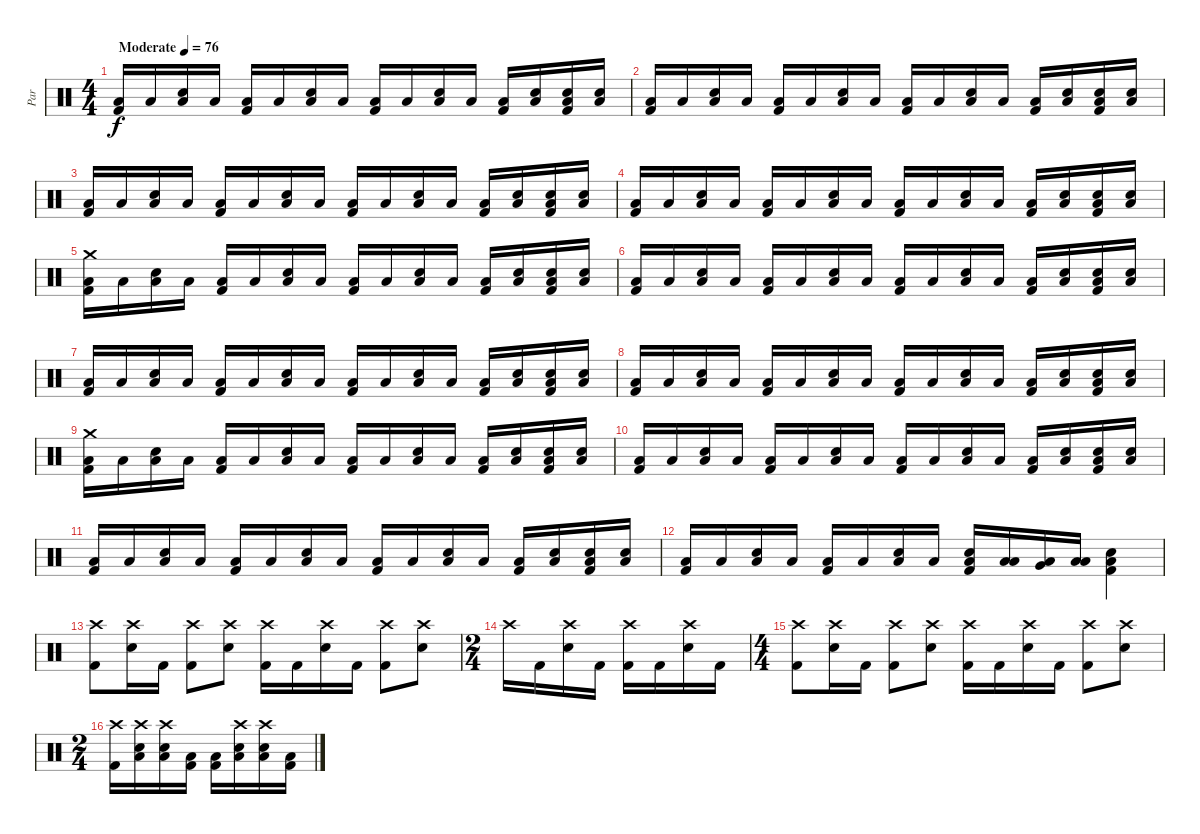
\track ("Par" "Par") {instrument percussion}
\staff {score}
\articulation defaults
\ts (4 4)
\tempo (76 "Moderate")
\clef neutral
\ks c
("Low Floor Tom (hit)" "Kick (hit) 2").16{dy f} "Low Floor Tom (hit)".16 ("Low Floor Tom (hit)" "Snare (hit) 2").16 "Low Floor Tom (hit)".16 ("Low Floor Tom (hit)" "Kick (hit) 2").16 "Low Floor Tom (hit)".16 ("Low Floor Tom (hit)" "Snare (hit) 2").16 "Low Floor Tom (hit)".16 ("Low Floor Tom (hit)" "Kick (hit) 2").16 "Low Floor Tom (hit)".16 ("Low Floor Tom (hit)" "Snare (hit) 2").16 "Low Floor Tom (hit)".16 ("Low Floor Tom (hit)" "Kick (hit) 2").16 ("Low Floor Tom (hit)" "Snare (hit) 2").16 ("Low Floor Tom (hit)" "Snare (hit) 2" "Kick (hit) 2").16 ("Low Floor Tom (hit)" "Snare (hit) 2").16 |
("Low Floor Tom (hit)" "Kick (hit) 2").16 "Low Floor Tom (hit)".16 ("Low Floor Tom (hit)" "Snare (hit) 2").16 "Low Floor Tom (hit)".16 ("Low Floor Tom (hit)" "Kick (hit) 2").16 "Low Floor Tom (hit)".16 ("Low Floor Tom (hit)" "Snare (hit) 2").16 "Low Floor Tom (hit)".16 ("Low Floor Tom (hit)" "Kick (hit) 2").16 "Low Floor Tom (hit)".16 ("Low Floor Tom (hit)" "Snare (hit) 2").16 "Low Floor Tom (hit)".16 ("Low Floor Tom (hit)" "Kick (hit) 2").16 ("Low Floor Tom (hit)" "Snare (hit) 2").16 ("Low Floor Tom (hit)" "Snare (hit) 2" "Kick (hit) 2").16 ("Low Floor Tom (hit)" "Snare (hit) 2").16 |
("Low Floor Tom (hit)" "Kick (hit) 2").16 "Low Floor Tom (hit)".16 ("Low Floor Tom (hit)" "Snare (hit) 2").16 "Low Floor Tom (hit)".16 ("Low Floor Tom (hit)" "Kick (hit) 2").16 "Low Floor Tom (hit)".16 ("Low Floor Tom (hit)" "Snare (hit) 2").16 "Low Floor Tom (hit)".16 ("Low Floor Tom (hit)" "Kick (hit) 2").16 "Low Floor Tom (hit)".16 ("Low Floor Tom (hit)" "Snare (hit) 2").16 "Low Floor Tom (hit)".16 ("Low Floor Tom (hit)" "Kick (hit) 2").16 ("Low Floor Tom (hit)" "Snare (hit) 2").16 ("Low Floor Tom (hit)" "Snare (hit) 2" "Kick (hit) 2").16 ("Low Floor Tom (hit)" "Snare (hit) 2").16 |
("Low Floor Tom (hit)" "Kick (hit) 2").16 "Low Floor Tom (hit)".16 ("Low Floor Tom (hit)" "Snare (hit) 2").16 "Low Floor Tom (hit)".16 ("Low Floor Tom (hit)" "Kick (hit) 2").16 "Low Floor Tom (hit)".16 ("Low Floor Tom (hit)" "Snare (hit) 2").16 "Low Floor Tom (hit)".16 ("Low Floor Tom (hit)" "Kick (hit) 2").16 "Low Floor Tom (hit)".16 ("Low Floor Tom (hit)" "Snare (hit) 2").16 "Low Floor Tom (hit)".16 ("Low Floor Tom (hit)" "Kick (hit) 2").16 ("Low Floor Tom (hit)" "Snare (hit) 2").16 ("Low Floor Tom (hit)" "Snare (hit) 2" "Kick (hit) 2").16 ("Low Floor Tom (hit)" "Snare (hit) 2").16 |
("Crash medium (hit)" "Low Floor Tom (hit)" "Kick (hit) 2").16 "Low Floor Tom (hit)".16 ("Low Floor Tom (hit)" "Snare (hit) 2").16 "Low Floor Tom (hit)".16 ("Low Floor Tom (hit)" "Kick (hit) 2").16 "Low Floor Tom (hit)".16 ("Low Floor Tom (hit)" "Snare (hit) 2").16 "Low Floor Tom (hit)".16 ("Low Floor Tom (hit)" "Kick (hit) 2").16 "Low Floor Tom (hit)".16 ("Low Floor Tom (hit)" "Snare (hit) 2").16 "Low Floor Tom (hit)".16 ("Low Floor Tom (hit)" "Kick (hit) 2").16 ("Low Floor Tom (hit)" "Snare (hit) 2").16 ("Low Floor Tom (hit)" "Snare (hit) 2" "Kick (hit) 2").16 ("Low Floor Tom (hit)" "Snare (hit) 2").16 |
("Low Floor Tom (hit)" "Kick (hit) 2").16 "Low Floor Tom (hit)".16 ("Low Floor Tom (hit)" "Snare (hit) 2").16 "Low Floor Tom (hit)".16 ("Low Floor Tom (hit)" "Kick (hit) 2").16 "Low Floor Tom (hit)".16 ("Low Floor Tom (hit)" "Snare (hit) 2").16 "Low Floor Tom (hit)".16 ("Low Floor Tom (hit)" "Kick (hit) 2").16 "Low Floor Tom (hit)".16 ("Low Floor Tom (hit)" "Snare (hit) 2").16 "Low Floor Tom (hit)".16 ("Low Floor Tom (hit)" "Kick (hit) 2").16 ("Low Floor Tom (hit)" "Snare (hit) 2").16 ("Low Floor Tom (hit)" "Snare (hit) 2" "Kick (hit) 2").16 ("Low Floor Tom (hit)" "Snare (hit) 2").16 |
("Low Floor Tom (hit)" "Kick (hit) 2").16 "Low Floor Tom (hit)".16 ("Low Floor Tom (hit)" "Snare (hit) 2").16 "Low Floor Tom (hit)".16 ("Low Floor Tom (hit)" "Kick (hit) 2").16 "Low Floor Tom (hit)".16 ("Low Floor Tom (hit)" "Snare (hit) 2").16 "Low Floor Tom (hit)".16 ("Low Floor Tom (hit)" "Kick (hit) 2").16 "Low Floor Tom (hit)".16 ("Low Floor Tom (hit)" "Snare (hit) 2").16 "Low Floor Tom (hit)".16 ("Low Floor Tom (hit)" "Kick (hit) 2").16 ("Low Floor Tom (hit)" "Snare (hit) 2").16 ("Low Floor Tom (hit)" "Snare (hit) 2" "Kick (hit) 2").16 ("Low Floor Tom (hit)" "Snare (hit) 2").16 |
("Low Floor Tom (hit)" "Kick (hit) 2").16 "Low Floor Tom (hit)".16 ("Low Floor Tom (hit)" "Snare (hit) 2").16 "Low Floor Tom (hit)".16 ("Low Floor Tom (hit)" "Kick (hit) 2").16 "Low Floor Tom (hit)".16 ("Low Floor Tom (hit)" "Snare (hit) 2").16 "Low Floor Tom (hit)".16 ("Low Floor Tom (hit)" "Kick (hit) 2").16 "Low Floor Tom (hit)".16 ("Low Floor Tom (hit)" "Snare (hit) 2").16 "Low Floor Tom (hit)".16 ("Low Floor Tom (hit)" "Kick (hit) 2").16 ("Low Floor Tom (hit)" "Snare (hit) 2").16 ("Low Floor Tom (hit)" "Snare (hit) 2" "Kick (hit) 2").16 ("Low Floor Tom (hit)" "Snare (hit) 2").16 |
("Crash medium (hit)" "Low Floor Tom (hit)" "Kick (hit) 2").16 "Low Floor Tom (hit)".16 ("Low Floor Tom (hit)" "Snare (hit) 2").16 "Low Floor Tom (hit)".16 ("Low Floor Tom (hit)" "Kick (hit) 2").16 "Low Floor Tom (hit)".16 ("Low Floor Tom (hit)" "Snare (hit) 2").16 "Low Floor Tom (hit)".16 ("Low Floor Tom (hit)" "Kick (hit) 2").16 "Low Floor Tom (hit)".16 ("Low Floor Tom (hit)" "Snare (hit) 2").16 "Low Floor Tom (hit)".16 ("Low Floor Tom (hit)" "Kick (hit) 2").16 ("Low Floor Tom (hit)" "Snare (hit) 2").16 ("Low Floor Tom (hit)" "Snare (hit) 2" "Kick (hit) 2").16 ("Low Floor Tom (hit)" "Snare (hit) 2").16 |
("Low Floor Tom (hit)" "Kick (hit) 2").16 "Low Floor Tom (hit)".16 ("Low Floor Tom (hit)" "Snare (hit) 2").16 "Low Floor Tom (hit)".16 ("Low Floor Tom (hit)" "Kick (hit) 2").16 "Low Floor Tom (hit)".16 ("Low Floor Tom (hit)" "Snare (hit) 2").16 "Low Floor Tom (hit)".16 ("Low Floor Tom (hit)" "Kick (hit) 2").16 "Low Floor Tom (hit)".16 ("Low Floor Tom (hit)" "Snare (hit) 2").16 "Low Floor Tom (hit)".16 ("Low Floor Tom (hit)" "Kick (hit) 2").16 ("Low Floor Tom (hit)" "Snare (hit) 2").16 ("Low Floor Tom (hit)" "Snare (hit) 2" "Kick (hit) 2").16 ("Low Floor Tom (hit)" "Snare (hit) 2").16 |
("Low Floor Tom (hit)" "Kick (hit) 2").16 "Low Floor Tom (hit)".16 ("Low Floor Tom (hit)" "Snare (hit) 2").16 "Low Floor Tom (hit)".16 ("Low Floor Tom (hit)" "Kick (hit) 2").16 "Low Floor Tom (hit)".16 ("Low Floor Tom (hit)" "Snare (hit) 2").16 "Low Floor Tom (hit)".16 ("Low Floor Tom (hit)" "Kick (hit) 2").16 "Low Floor Tom (hit)".16 ("Low Floor Tom (hit)" "Snare (hit) 2").16 "Low Floor Tom (hit)".16 ("Low Floor Tom (hit)" "Kick (hit) 2").16 ("Low Floor Tom (hit)" "Snare (hit) 2").16 ("Low Floor Tom (hit)" "Snare (hit) 2" "Kick (hit) 2").16 ("Low Floor Tom (hit)" "Snare (hit) 2").16 |
("Low Floor Tom (hit)" "Kick (hit) 2").16 "Low Floor Tom (hit)".16 ("Low Floor Tom (hit)" "Snare (hit) 2").16 "Low Floor Tom (hit)".16 ("Low Floor Tom (hit)" "Kick (hit) 2").16 "Low Floor Tom (hit)".16 ("Low Floor Tom (hit)" "Snare (hit) 2").16 "Low Floor Tom (hit)".16 ("Low Floor Tom (hit)" "Snare (hit) 2" "Kick (hit) 2").16 ("Low Floor Tom (hit)" "Low Tom (hit)").16 ("Low Floor Tom (hit)" "Very Low Tom (hit)").16 ("Low Floor Tom (hit)" "Low Floor Tom (hit)").16 ("Low Floor Tom (hit)" "Snare (hit) 2" "Kick (hit) 2").4 |
("Crash high (hit)" "Kick (hit) 2").8 ("Crash high (hit)" "Snare (hit) 2").16 "Kick (hit) 2".16 ("Crash high (hit)" "Kick (hit) 2").8 ("Crash high (hit)" "Snare (hit) 2").8 ("Crash high (hit)" "Kick (hit) 2").16 "Kick (hit) 2".16 ("Crash high (hit)" "Snare (hit) 2").16 "Kick (hit) 2".16 ("Crash high (hit)" "Kick (hit) 2").8 ("Crash high (hit)" "Snare (hit) 2").8 |
\ts (2 4)
"Crash high (hit)".16 "Kick (hit) 2".16 ("Crash high (hit)" "Snare (hit) 2").16 "Kick (hit) 2".16 ("Crash high (hit)" "Kick (hit) 2").16 "Kick (hit) 2".16 ("Crash high (hit)" "Snare (hit) 2").16 "Kick (hit) 2".16 |
\ts (4 4)
("Crash high (hit)" "Kick (hit) 2").8 ("Crash high (hit)" "Snare (hit) 2").16 "Kick (hit) 2".16 ("Crash high (hit)" "Kick (hit) 2").8 ("Crash high (hit)" "Snare (hit) 2").8 ("Crash high (hit)" "Kick (hit) 2").16 "Kick (hit) 2".16 ("Crash high (hit)" "Snare (hit) 2").16 "Kick (hit) 2".16 ("Crash high (hit)" "Kick (hit) 2").8 ("Crash high (hit)" "Snare (hit) 2").8 |
\ts (2 4)
("Crash high (hit)" "Kick (hit) 2").16 ("Crash high (hit)" "Low Floor Tom (hit)" "Snare (hit) 2").16 ("Crash high (hit)" "Low Floor Tom (hit)" "Snare (hit) 2").16 ("Low Floor Tom (hit)" "Kick (hit) 2").16 ("Low Floor Tom (hit)" "Kick (hit) 2").16 ("Crash high (hit)" "Low Floor Tom (hit)" "Snare (hit) 2").16 ("Crash high (hit)" "Low Floor Tom (hit)" "Snare (hit) 2").16 ("Low Floor Tom (hit)" "Kick (hit) 2").16
